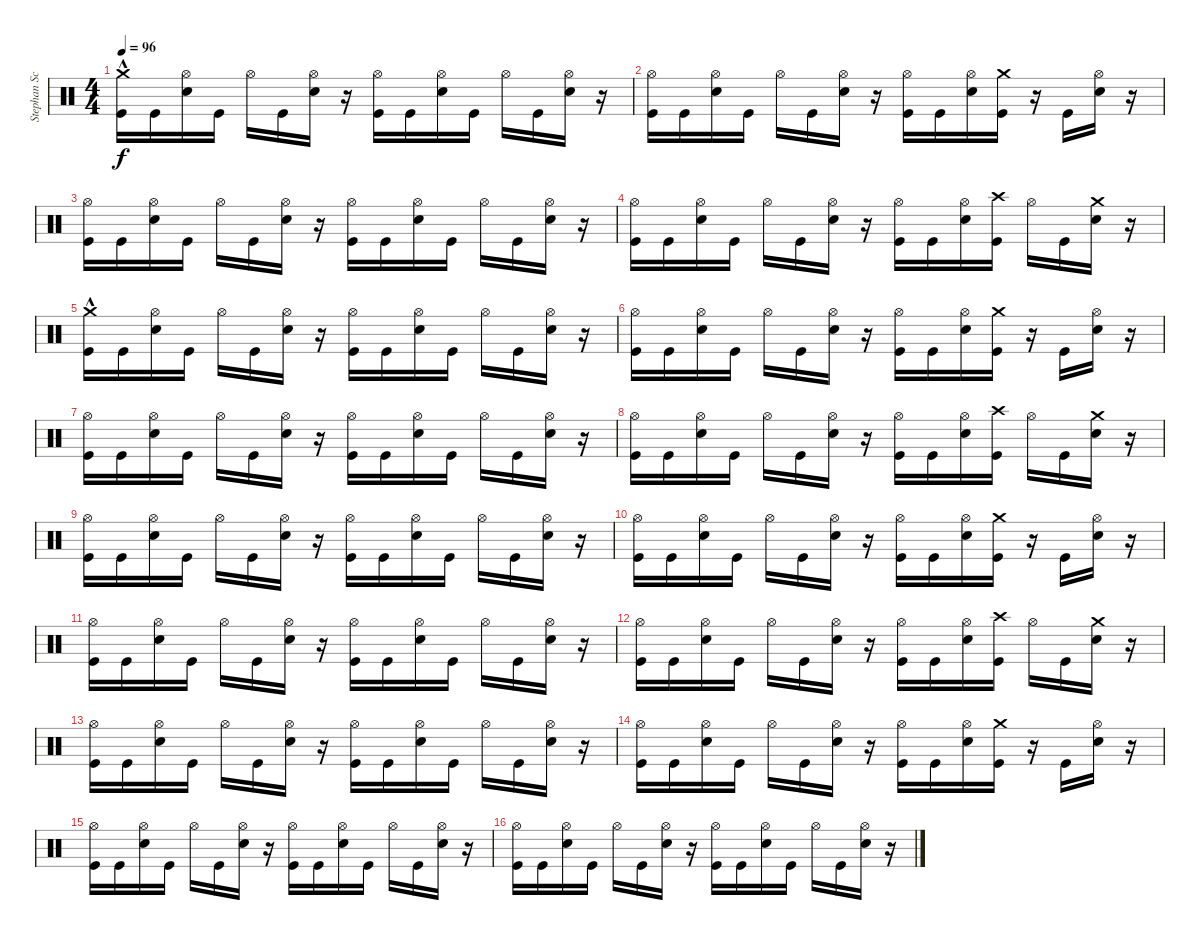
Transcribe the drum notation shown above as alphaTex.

\track ("Stephan Schwarzmann" "Stephan Sc") {instrument percussion}
\staff {score}
\articulation defaults
\ts (4 4)
\tempo 96
\clef neutral
\ks c
("Kick (hit)" "Crash medium (hit)"{hac}).16{dy f} "Kick (hit)".16 ("Snare (hit) 2" "Hi-Hat (open)").16 "Kick (hit)".16 "Hi-Hat (open)".16 "Kick (hit)".16 ("Hi-Hat (open)" "Snare (hit) 2").16 r.16 ("Hi-Hat (open)" "Kick (hit)").16 "Kick (hit)".16 ("Snare (hit) 2" "Hi-Hat (open)").16 "Kick (hit)".16 "Hi-Hat (open)".16 "Kick (hit)".16 ("Hi-Hat (open)" "Snare (hit) 2").16 r.16 |
("Kick (hit)" "Hi-Hat (open)").16 "Kick (hit)".16 ("Snare (hit) 2" "Hi-Hat (open)").16 "Kick (hit)".16 "Hi-Hat (open)".16 "Kick (hit)".16 ("Hi-Hat (open)" "Snare (hit) 2").16 r.16 ("Hi-Hat (open)" "Kick (hit)").16 "Kick (hit)".16 ("Snare (hit) 2" "Hi-Hat (open)").16 ("Kick (hit)" "Crash medium (hit)").16 r.16 "Kick (hit)".16 ("Hi-Hat (open)" "Snare (hit) 2").16 r.16 |
("Kick (hit)" "Hi-Hat (open)").16 "Kick (hit)".16 ("Snare (hit) 2" "Hi-Hat (open)").16 "Kick (hit)".16 "Hi-Hat (open)".16 "Kick (hit)".16 ("Hi-Hat (open)" "Snare (hit) 2").16 r.16 ("Hi-Hat (open)" "Kick (hit)").16 "Kick (hit)".16 ("Snare (hit) 2" "Hi-Hat (open)").16 "Kick (hit)".16 "Hi-Hat (open)".16 "Kick (hit)".16 ("Hi-Hat (open)" "Snare (hit) 2").16 r.16 |
("Kick (hit)" "Hi-Hat (open)").16 "Kick (hit)".16 ("Snare (hit) 2" "Hi-Hat (open)").16 "Kick (hit)".16 "Hi-Hat (open)".16 "Kick (hit)".16 ("Hi-Hat (open)" "Snare (hit) 2").16 r.16 ("Hi-Hat (open)" "Kick (hit)").16 "Kick (hit)".16 ("Snare (hit) 2" "Hi-Hat (open)").16 ("Kick (hit)" "Crash high (hit)").16 "Hi-Hat (open)".16 "Kick (hit)".16 ("Snare (hit) 2" "Crash medium (hit)").16 r.16 |
("Kick (hit)" "Crash medium (hit)"{hac}).16 "Kick (hit)".16 ("Snare (hit) 2" "Hi-Hat (open)").16 "Kick (hit)".16 "Hi-Hat (open)".16 "Kick (hit)".16 ("Hi-Hat (open)" "Snare (hit) 2").16 r.16 ("Hi-Hat (open)" "Kick (hit)").16 "Kick (hit)".16 ("Snare (hit) 2" "Hi-Hat (open)").16 "Kick (hit)".16 "Hi-Hat (open)".16 "Kick (hit)".16 ("Hi-Hat (open)" "Snare (hit) 2").16 r.16 |
("Kick (hit)" "Hi-Hat (open)").16 "Kick (hit)".16 ("Snare (hit) 2" "Hi-Hat (open)").16 "Kick (hit)".16 "Hi-Hat (open)".16 "Kick (hit)".16 ("Hi-Hat (open)" "Snare (hit) 2").16 r.16 ("Hi-Hat (open)" "Kick (hit)").16 "Kick (hit)".16 ("Snare (hit) 2" "Hi-Hat (open)").16 ("Kick (hit)" "Crash medium (hit)").16 r.16 "Kick (hit)".16 ("Hi-Hat (open)" "Snare (hit) 2").16 r.16 |
("Kick (hit)" "Hi-Hat (open)").16 "Kick (hit)".16 ("Snare (hit) 2" "Hi-Hat (open)").16 "Kick (hit)".16 "Hi-Hat (open)".16 "Kick (hit)".16 ("Hi-Hat (open)" "Snare (hit) 2").16 r.16 ("Hi-Hat (open)" "Kick (hit)").16 "Kick (hit)".16 ("Snare (hit) 2" "Hi-Hat (open)").16 "Kick (hit)".16 "Hi-Hat (open)".16 "Kick (hit)".16 ("Hi-Hat (open)" "Snare (hit) 2").16 r.16 |
("Kick (hit)" "Hi-Hat (open)").16 "Kick (hit)".16 ("Snare (hit) 2" "Hi-Hat (open)").16 "Kick (hit)".16 "Hi-Hat (open)".16 "Kick (hit)".16 ("Hi-Hat (open)" "Snare (hit) 2").16 r.16 ("Hi-Hat (open)" "Kick (hit)").16 "Kick (hit)".16 ("Snare (hit) 2" "Hi-Hat (open)").16 ("Kick (hit)" "Crash high (hit)").16 "Hi-Hat (open)".16 "Kick (hit)".16 ("Snare (hit) 2" "Crash medium (hit)").16 r.16 |
("Kick (hit)" "Hi-Hat (open)").16 "Kick (hit)".16 ("Snare (hit) 2" "Hi-Hat (open)").16 "Kick (hit)".16 "Hi-Hat (open)".16 "Kick (hit)".16 ("Hi-Hat (open)" "Snare (hit) 2").16 r.16 ("Hi-Hat (open)" "Kick (hit)").16 "Kick (hit)".16 ("Snare (hit) 2" "Hi-Hat (open)").16 "Kick (hit)".16 "Hi-Hat (open)".16 "Kick (hit)".16 ("Hi-Hat (open)" "Snare (hit) 2").16 r.16 |
("Kick (hit)" "Hi-Hat (open)").16 "Kick (hit)".16 ("Snare (hit) 2" "Hi-Hat (open)").16 "Kick (hit)".16 "Hi-Hat (open)".16 "Kick (hit)".16 ("Hi-Hat (open)" "Snare (hit) 2").16 r.16 ("Hi-Hat (open)" "Kick (hit)").16 "Kick (hit)".16 ("Snare (hit) 2" "Hi-Hat (open)").16 ("Kick (hit)" "Crash medium (hit)").16 r.16 "Kick (hit)".16 ("Hi-Hat (open)" "Snare (hit) 2").16 r.16 |
("Kick (hit)" "Hi-Hat (open)").16 "Kick (hit)".16 ("Snare (hit) 2" "Hi-Hat (open)").16 "Kick (hit)".16 "Hi-Hat (open)".16 "Kick (hit)".16 ("Hi-Hat (open)" "Snare (hit) 2").16 r.16 ("Hi-Hat (open)" "Kick (hit)").16 "Kick (hit)".16 ("Snare (hit) 2" "Hi-Hat (open)").16 "Kick (hit)".16 "Hi-Hat (open)".16 "Kick (hit)".16 ("Hi-Hat (open)" "Snare (hit) 2").16 r.16 |
("Kick (hit)" "Hi-Hat (open)").16 "Kick (hit)".16 ("Snare (hit) 2" "Hi-Hat (open)").16 "Kick (hit)".16 "Hi-Hat (open)".16 "Kick (hit)".16 ("Hi-Hat (open)" "Snare (hit) 2").16 r.16 ("Hi-Hat (open)" "Kick (hit)").16 "Kick (hit)".16 ("Snare (hit) 2" "Hi-Hat (open)").16 ("Kick (hit)" "Crash high (hit)").16 "Hi-Hat (open)".16 "Kick (hit)".16 ("Snare (hit) 2" "Crash medium (hit)").16 r.16 |
("Kick (hit)" "Hi-Hat (open)").16 "Kick (hit)".16 ("Snare (hit) 2" "Hi-Hat (open)").16 "Kick (hit)".16 "Hi-Hat (open)".16 "Kick (hit)".16 ("Hi-Hat (open)" "Snare (hit) 2").16 r.16 ("Hi-Hat (open)" "Kick (hit)").16 "Kick (hit)".16 ("Snare (hit) 2" "Hi-Hat (open)").16 "Kick (hit)".16 "Hi-Hat (open)".16 "Kick (hit)".16 ("Hi-Hat (open)" "Snare (hit) 2").16 r.16 |
("Kick (hit)" "Hi-Hat (open)").16 "Kick (hit)".16 ("Snare (hit) 2" "Hi-Hat (open)").16 "Kick (hit)".16 "Hi-Hat (open)".16 "Kick (hit)".16 ("Hi-Hat (open)" "Snare (hit) 2").16 r.16 ("Hi-Hat (open)" "Kick (hit)").16 "Kick (hit)".16 ("Snare (hit) 2" "Hi-Hat (open)").16 ("Kick (hit)" "Crash medium (hit)").16 r.16 "Kick (hit)".16 ("Hi-Hat (open)" "Snare (hit) 2").16 r.16 |
("Kick (hit)" "Hi-Hat (open)").16 "Kick (hit)".16 ("Snare (hit) 2" "Hi-Hat (open)").16 "Kick (hit)".16 "Hi-Hat (open)".16 "Kick (hit)".16 ("Hi-Hat (open)" "Snare (hit) 2").16 r.16 ("Hi-Hat (open)" "Kick (hit)").16 "Kick (hit)".16 ("Snare (hit) 2" "Hi-Hat (open)").16 "Kick (hit)".16 "Hi-Hat (open)".16 "Kick (hit)".16 ("Hi-Hat (open)" "Snare (hit) 2").16 r.16 |
("Kick (hit)" "Hi-Hat (open)").16 "Kick (hit)".16 ("Snare (hit) 2" "Hi-Hat (open)").16 "Kick (hit)".16 "Hi-Hat (open)".16 "Kick (hit)".16 ("Hi-Hat (open)" "Snare (hit) 2").16 r.16 ("Hi-Hat (open)" "Kick (hit)").16 "Kick (hit)".16 ("Snare (hit) 2" "Hi-Hat (open)").16 "Kick (hit)".16 "Hi-Hat (open)".16 "Kick (hit)".16 ("Hi-Hat (open)" "Snare (hit) 2").16 r.16
